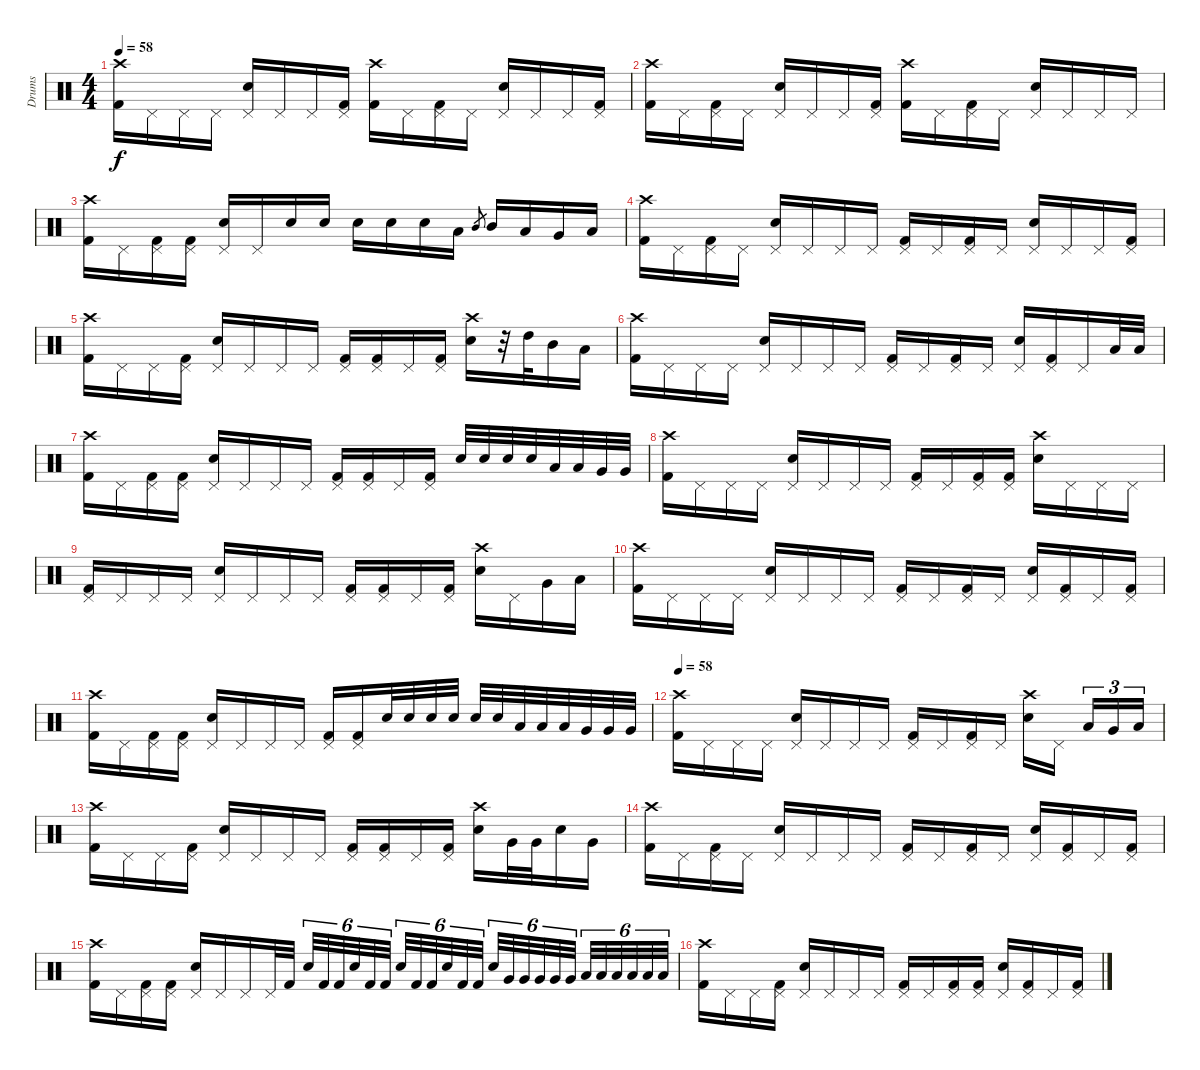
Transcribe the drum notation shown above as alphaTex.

\track ("Drums" "Drums") {instrument percussion}
\staff {score}
\articulation defaults
\ts (4 4)
\tempo 58
\clef neutral
\ks c
("Crash high (hit)" "Kick (hit) 2").16{dy f} "Pedal Hi-Hat (hit)".16 "Pedal Hi-Hat (hit)".16 "Pedal Hi-Hat (hit)".16 ("Pedal Hi-Hat (hit)" "Electric Snare (hit)").16 "Pedal Hi-Hat (hit)".16 "Pedal Hi-Hat (hit)".16 ("Pedal Hi-Hat (hit)" "Kick (hit) 2").16 ("Crash high (hit)" "Kick (hit) 2").16 "Pedal Hi-Hat (hit)".16 ("Pedal Hi-Hat (hit)" "Kick (hit) 2").16 "Pedal Hi-Hat (hit)".16 ("Pedal Hi-Hat (hit)" "Electric Snare (hit)").16 "Pedal Hi-Hat (hit)".16 "Pedal Hi-Hat (hit)".16 ("Pedal Hi-Hat (hit)" "Kick (hit) 2").16 |
("Crash high (hit)" "Kick (hit) 2").16 "Pedal Hi-Hat (hit)".16 ("Pedal Hi-Hat (hit)" "Kick (hit) 2").16 "Pedal Hi-Hat (hit)".16 ("Pedal Hi-Hat (hit)" "Electric Snare (hit)").16 "Pedal Hi-Hat (hit)".16 "Pedal Hi-Hat (hit)".16 ("Pedal Hi-Hat (hit)" "Kick (hit) 2").16 ("Crash high (hit)" "Kick (hit) 2").16 "Pedal Hi-Hat (hit)".16 ("Pedal Hi-Hat (hit)" "Kick (hit) 2").16 "Pedal Hi-Hat (hit)".16 ("Pedal Hi-Hat (hit)" "Electric Snare (hit)").16 "Pedal Hi-Hat (hit)".16 "Pedal Hi-Hat (hit)".16 "Pedal Hi-Hat (hit)".16 |
("Crash high (hit)" "Kick (hit) 2").16 "Pedal Hi-Hat (hit)".16 ("Pedal Hi-Hat (hit)" "Kick (hit) 2").16 ("Pedal Hi-Hat (hit)" "Kick (hit) 2").16 ("Pedal Hi-Hat (hit)" "Electric Snare (hit)").16 "Pedal Hi-Hat (hit)".16 "Electric Snare (hit)".16 "Electric Snare (hit)".16 "Electric Snare (hit)".16 "Electric Snare (hit)".16 "Electric Snare (hit)".16 "Low Floor Tom (hit)".16 "Mid Tom (hit)".8{gr} "Mid Tom (hit)".16 "Low Tom (hit)".16 "Very Low Tom (hit)".16 "Low Floor Tom (hit)".16 |
("Crash high (hit)" "Kick (hit) 2").16 "Pedal Hi-Hat (hit)".16 ("Pedal Hi-Hat (hit)" "Kick (hit) 2").16 "Pedal Hi-Hat (hit)".16 ("Pedal Hi-Hat (hit)" "Electric Snare (hit)").16 "Pedal Hi-Hat (hit)".16 "Pedal Hi-Hat (hit)".16 "Pedal Hi-Hat (hit)".16 ("Pedal Hi-Hat (hit)" "Kick (hit) 2").16 "Pedal Hi-Hat (hit)".16 ("Pedal Hi-Hat (hit)" "Kick (hit) 2").16 "Pedal Hi-Hat (hit)".16 ("Pedal Hi-Hat (hit)" "Electric Snare (hit)").16 "Pedal Hi-Hat (hit)".16 "Pedal Hi-Hat (hit)".16 ("Pedal Hi-Hat (hit)" "Kick (hit) 2").16 |
("Crash high (hit)" "Kick (hit) 2").16 "Pedal Hi-Hat (hit)".16 "Pedal Hi-Hat (hit)".16 ("Pedal Hi-Hat (hit)" "Kick (hit) 2").16 ("Pedal Hi-Hat (hit)" "Electric Snare (hit)").16 "Pedal Hi-Hat (hit)".16 "Pedal Hi-Hat (hit)".16 "Pedal Hi-Hat (hit)".16 ("Pedal Hi-Hat (hit)" "Kick (hit) 2").16 ("Pedal Hi-Hat (hit)" "Kick (hit) 2").16 "Pedal Hi-Hat (hit)".16 ("Pedal Hi-Hat (hit)" "Kick (hit) 2").16 ("Crash high (hit)" "Electric Snare (hit)").16 r.32 "High Tom (hit)".32 "Mid Tom (hit)".16 "Low Tom (hit)".16 |
("Crash high (hit)" "Kick (hit) 2").16 "Pedal Hi-Hat (hit)".16 "Pedal Hi-Hat (hit)".16 "Pedal Hi-Hat (hit)".16 ("Pedal Hi-Hat (hit)" "Electric Snare (hit)").16 "Pedal Hi-Hat (hit)".16 "Pedal Hi-Hat (hit)".16 "Pedal Hi-Hat (hit)".16 ("Pedal Hi-Hat (hit)" "Kick (hit) 2").16 "Pedal Hi-Hat (hit)".16 ("Pedal Hi-Hat (hit)" "Kick (hit) 2").16 "Pedal Hi-Hat (hit)".16 ("Pedal Hi-Hat (hit)" "Electric Snare (hit)").16 ("Pedal Hi-Hat (hit)" "Kick (hit) 2").16 "Pedal Hi-Hat (hit)".16 "Low Tom (hit)".32 "Low Tom (hit)".32 |
("Crash high (hit)" "Kick (hit) 2").16 "Pedal Hi-Hat (hit)".16 ("Pedal Hi-Hat (hit)" "Kick (hit) 2").16 ("Pedal Hi-Hat (hit)" "Kick (hit) 2").16 ("Pedal Hi-Hat (hit)" "Electric Snare (hit)").16 "Pedal Hi-Hat (hit)".16 "Pedal Hi-Hat (hit)".16 "Pedal Hi-Hat (hit)".16 ("Pedal Hi-Hat (hit)" "Kick (hit) 2").16 ("Pedal Hi-Hat (hit)" "Kick (hit) 2").16 "Pedal Hi-Hat (hit)".16 ("Pedal Hi-Hat (hit)" "Kick (hit) 2").16 "Electric Snare (hit)".32 "Electric Snare (hit)".32 "Electric Snare (hit)".32 "Electric Snare (hit)".32 "Low Tom (hit)".32 "Low Tom (hit)".32 "Very Low Tom (hit)".32 "Very Low Tom (hit)".32 |
("Crash high (hit)" "Kick (hit) 2").16 "Pedal Hi-Hat (hit)".16 "Pedal Hi-Hat (hit)".16 "Pedal Hi-Hat (hit)".16 ("Pedal Hi-Hat (hit)" "Electric Snare (hit)").16 "Pedal Hi-Hat (hit)".16 "Pedal Hi-Hat (hit)".16 "Pedal Hi-Hat (hit)".16 ("Pedal Hi-Hat (hit)" "Kick (hit) 2").16 "Pedal Hi-Hat (hit)".16 ("Pedal Hi-Hat (hit)" "Kick (hit) 2").16 ("Pedal Hi-Hat (hit)" "Kick (hit) 2").16 ("Crash high (hit)" "Electric Snare (hit)").16 "Pedal Hi-Hat (hit)".16 "Pedal Hi-Hat (hit)".16 "Pedal Hi-Hat (hit)".16 |
("Pedal Hi-Hat (hit)" "Kick (hit) 2").16 "Pedal Hi-Hat (hit)".16 "Pedal Hi-Hat (hit)".16 "Pedal Hi-Hat (hit)".16 ("Pedal Hi-Hat (hit)" "Electric Snare (hit)").16 "Pedal Hi-Hat (hit)".16 "Pedal Hi-Hat (hit)".16 "Pedal Hi-Hat (hit)".16 ("Pedal Hi-Hat (hit)" "Kick (hit) 2").16 ("Pedal Hi-Hat (hit)" "Kick (hit) 2").16 "Pedal Hi-Hat (hit)".16 ("Pedal Hi-Hat (hit)" "Kick (hit) 2").16 ("Crash high (hit)" "Electric Snare (hit)").16 "Pedal Hi-Hat (hit)".16 "Very Low Tom (hit)".16 "Low Floor Tom (hit)".16 |
("Crash high (hit)" "Kick (hit) 2").16 "Pedal Hi-Hat (hit)".16 "Pedal Hi-Hat (hit)".16 "Pedal Hi-Hat (hit)".16 ("Pedal Hi-Hat (hit)" "Electric Snare (hit)").16 "Pedal Hi-Hat (hit)".16 "Pedal Hi-Hat (hit)".16 "Pedal Hi-Hat (hit)".16 ("Pedal Hi-Hat (hit)" "Kick (hit) 2").16 "Pedal Hi-Hat (hit)".16 ("Pedal Hi-Hat (hit)" "Kick (hit) 2").16 "Pedal Hi-Hat (hit)".16 ("Pedal Hi-Hat (hit)" "Electric Snare (hit)").16 ("Pedal Hi-Hat (hit)" "Kick (hit) 2").16 "Pedal Hi-Hat (hit)".16 ("Pedal Hi-Hat (hit)" "Kick (hit) 2").16 |
("Crash high (hit)" "Kick (hit) 2").16 "Pedal Hi-Hat (hit)".16 ("Pedal Hi-Hat (hit)" "Kick (hit) 2").16 ("Pedal Hi-Hat (hit)" "Kick (hit) 2").16 ("Pedal Hi-Hat (hit)" "Electric Snare (hit)").16 "Pedal Hi-Hat (hit)".16 "Pedal Hi-Hat (hit)".16 "Pedal Hi-Hat (hit)".16 ("Pedal Hi-Hat (hit)" "Kick (hit) 2").16 ("Pedal Hi-Hat (hit)" "Kick (hit) 2").16 "Electric Snare (hit)".32 "Electric Snare (hit)".32 "Electric Snare (hit)".32 "Electric Snare (hit)".32 "Electric Snare (hit)".32 "Electric Snare (hit)".32 "Low Tom (hit)".32 "Low Tom (hit)".32 "Low Tom (hit)".32 "Very Low Tom (hit)".32 "Very Low Tom (hit)".32 "Very Low Tom (hit)".32 |
\tempo 58
("Crash high (hit)" "Kick (hit) 2").16 "Pedal Hi-Hat (hit)".16 "Pedal Hi-Hat (hit)".16 "Pedal Hi-Hat (hit)".16 ("Pedal Hi-Hat (hit)" "Electric Snare (hit)").16 "Pedal Hi-Hat (hit)".16 "Pedal Hi-Hat (hit)".16 "Pedal Hi-Hat (hit)".16 ("Pedal Hi-Hat (hit)" "Kick (hit) 2").16 "Pedal Hi-Hat (hit)".16 ("Pedal Hi-Hat (hit)" "Kick (hit) 2").16 "Pedal Hi-Hat (hit)".16 ("Crash high (hit)" "Electric Snare (hit)").16 "Pedal Hi-Hat (hit)".16 "Low Tom (hit)".16{tu (3 2)} "Very Low Tom (hit)".16{tu (3 2)} "Low Floor Tom (hit)".16{tu (3 2)} |
("Crash high (hit)" "Kick (hit) 2").16 "Pedal Hi-Hat (hit)".16 "Pedal Hi-Hat (hit)".16 ("Pedal Hi-Hat (hit)" "Kick (hit) 2").16 ("Pedal Hi-Hat (hit)" "Electric Snare (hit)").16 "Pedal Hi-Hat (hit)".16 "Pedal Hi-Hat (hit)".16 "Pedal Hi-Hat (hit)".16 ("Pedal Hi-Hat (hit)" "Kick (hit) 2").16 ("Pedal Hi-Hat (hit)" "Kick (hit) 2").16 "Pedal Hi-Hat (hit)".16 ("Pedal Hi-Hat (hit)" "Kick (hit) 2").16 ("Crash high (hit)" "Electric Snare (hit)").16 "Very Low Tom (hit)".32 "Very Low Tom (hit)".32 "Electric Snare (hit)".16 "Very Low Tom (hit)".16 |
("Crash high (hit)" "Kick (hit) 2").16 "Pedal Hi-Hat (hit)".16 ("Pedal Hi-Hat (hit)" "Kick (hit) 2").16 "Pedal Hi-Hat (hit)".16 ("Pedal Hi-Hat (hit)" "Electric Snare (hit)").16 "Pedal Hi-Hat (hit)".16 "Pedal Hi-Hat (hit)".16 "Pedal Hi-Hat (hit)".16 ("Pedal Hi-Hat (hit)" "Kick (hit) 2").16 "Pedal Hi-Hat (hit)".16 ("Pedal Hi-Hat (hit)" "Kick (hit) 2").16 "Pedal Hi-Hat (hit)".16 ("Pedal Hi-Hat (hit)" "Electric Snare (hit)").16 ("Pedal Hi-Hat (hit)" "Kick (hit) 2").16 "Pedal Hi-Hat (hit)".16 ("Pedal Hi-Hat (hit)" "Kick (hit) 2").16 |
("Crash high (hit)" "Kick (hit) 2").16 "Pedal Hi-Hat (hit)".16 ("Pedal Hi-Hat (hit)" "Kick (hit) 2").16 ("Pedal Hi-Hat (hit)" "Kick (hit) 2").16 ("Pedal Hi-Hat (hit)" "Electric Snare (hit)").16 "Pedal Hi-Hat (hit)".16 "Pedal Hi-Hat (hit)".16 "Pedal Hi-Hat (hit)".32 "Kick (hit) 2".32 "Electric Snare (hit)".32{tu (6 4)} "Kick (hit) 2".32{tu (6 4)} "Kick (hit) 2".32{tu (6 4)} "Electric Snare (hit)".32{tu (6 4)} "Kick (hit) 2".32{tu (6 4)} "Kick (hit) 2".32{tu (6 4)} "Electric Snare (hit)".32{tu (6 4)} "Kick (hit) 2".32{tu (6 4)} "Kick (hit) 2".32{tu (6 4)} "Electric Snare (hit)".32{tu (6 4)} "Kick (hit) 2".32{tu (6 4)} "Kick (hit) 2".32{tu (6 4)} "Electric Snare (hit)".32{tu (6 4)} "Very Low Tom (hit)".32{tu (6 4)} "Very Low Tom (hit)".32{tu (6 4)} "Very Low Tom (hit)".32{tu (6 4)} "Very Low Tom (hit)".32{tu (6 4)} "Very Low Tom (hit)".32{tu (6 4)} "Low Floor Tom (hit)".32{tu (6 4)} "Low Floor Tom (hit)".32{tu (6 4)} "Low Floor Tom (hit)".32{tu (6 4)} "Low Floor Tom (hit)".32{tu (6 4)} "Low Floor Tom (hit)".32{tu (6 4)} "Low Floor Tom (hit)".32{tu (6 4)} |
("Crash high (hit)" "Kick (hit) 2").16 "Pedal Hi-Hat (hit)".16 "Pedal Hi-Hat (hit)".16 ("Pedal Hi-Hat (hit)" "Kick (hit) 2").16 ("Pedal Hi-Hat (hit)" "Electric Snare (hit)").16 "Pedal Hi-Hat (hit)".16 "Pedal Hi-Hat (hit)".16 "Pedal Hi-Hat (hit)".16 ("Pedal Hi-Hat (hit)" "Kick (hit) 2").16 "Pedal Hi-Hat (hit)".16 ("Pedal Hi-Hat (hit)" "Kick (hit) 2").16 ("Pedal Hi-Hat (hit)" "Kick (hit) 2").16 ("Pedal Hi-Hat (hit)" "Electric Snare (hit)").16 ("Pedal Hi-Hat (hit)" "Kick (hit) 2").16 "Pedal Hi-Hat (hit)".16 ("Pedal Hi-Hat (hit)" "Kick (hit) 2").16
